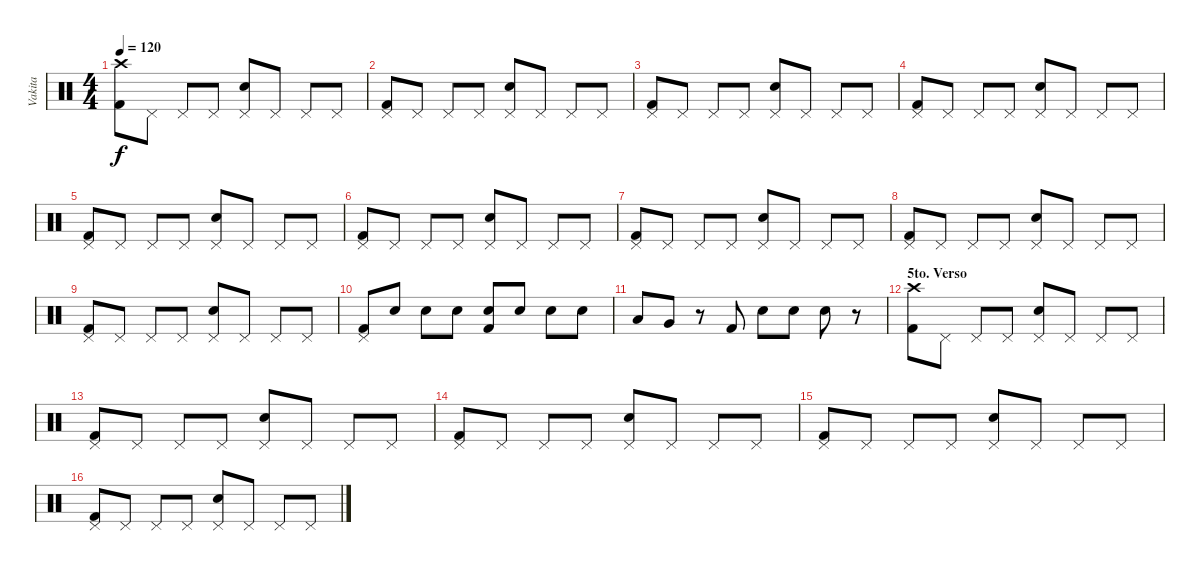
\track ("Vakita" "Vakita") {instrument percussion}
\staff {score}
\articulation defaults
\ts (4 4)
\tempo 120
\clef neutral
\ks c
("Crash high (hit)" "Kick (hit) 2").8{dy f} "Pedal Hi-Hat (hit)".8 "Pedal Hi-Hat (hit)".8 "Pedal Hi-Hat (hit)".8 ("Pedal Hi-Hat (hit)" "Snare (hit) 2").8 "Pedal Hi-Hat (hit)".8 "Pedal Hi-Hat (hit)".8 "Pedal Hi-Hat (hit)".8 |
("Pedal Hi-Hat (hit)" "Kick (hit) 2").8 "Pedal Hi-Hat (hit)".8 "Pedal Hi-Hat (hit)".8 "Pedal Hi-Hat (hit)".8 ("Pedal Hi-Hat (hit)" "Snare (hit) 2").8 "Pedal Hi-Hat (hit)".8 "Pedal Hi-Hat (hit)".8 "Pedal Hi-Hat (hit)".8 |
("Pedal Hi-Hat (hit)" "Kick (hit) 2").8 "Pedal Hi-Hat (hit)".8 "Pedal Hi-Hat (hit)".8 "Pedal Hi-Hat (hit)".8 ("Pedal Hi-Hat (hit)" "Snare (hit) 2").8 "Pedal Hi-Hat (hit)".8 "Pedal Hi-Hat (hit)".8 "Pedal Hi-Hat (hit)".8 |
("Pedal Hi-Hat (hit)" "Kick (hit) 2").8 "Pedal Hi-Hat (hit)".8 "Pedal Hi-Hat (hit)".8 "Pedal Hi-Hat (hit)".8 ("Pedal Hi-Hat (hit)" "Snare (hit) 2").8 "Pedal Hi-Hat (hit)".8 "Pedal Hi-Hat (hit)".8 "Pedal Hi-Hat (hit)".8 |
("Pedal Hi-Hat (hit)" "Kick (hit) 2").8 "Pedal Hi-Hat (hit)".8 "Pedal Hi-Hat (hit)".8 "Pedal Hi-Hat (hit)".8 ("Pedal Hi-Hat (hit)" "Snare (hit) 2").8 "Pedal Hi-Hat (hit)".8 "Pedal Hi-Hat (hit)".8 "Pedal Hi-Hat (hit)".8 |
("Pedal Hi-Hat (hit)" "Kick (hit) 2").8 "Pedal Hi-Hat (hit)".8 "Pedal Hi-Hat (hit)".8 "Pedal Hi-Hat (hit)".8 ("Pedal Hi-Hat (hit)" "Snare (hit) 2").8 "Pedal Hi-Hat (hit)".8 "Pedal Hi-Hat (hit)".8 "Pedal Hi-Hat (hit)".8 |
("Pedal Hi-Hat (hit)" "Kick (hit) 2").8 "Pedal Hi-Hat (hit)".8 "Pedal Hi-Hat (hit)".8 "Pedal Hi-Hat (hit)".8 ("Pedal Hi-Hat (hit)" "Snare (hit) 2").8 "Pedal Hi-Hat (hit)".8 "Pedal Hi-Hat (hit)".8 "Pedal Hi-Hat (hit)".8 |
("Pedal Hi-Hat (hit)" "Kick (hit) 2").8 "Pedal Hi-Hat (hit)".8 "Pedal Hi-Hat (hit)".8 "Pedal Hi-Hat (hit)".8 ("Pedal Hi-Hat (hit)" "Snare (hit) 2").8 "Pedal Hi-Hat (hit)".8 "Pedal Hi-Hat (hit)".8 "Pedal Hi-Hat (hit)".8 |
("Pedal Hi-Hat (hit)" "Kick (hit) 2").8 "Pedal Hi-Hat (hit)".8 "Pedal Hi-Hat (hit)".8 "Pedal Hi-Hat (hit)".8 ("Pedal Hi-Hat (hit)" "Snare (hit) 2").8 "Pedal Hi-Hat (hit)".8 "Pedal Hi-Hat (hit)".8 "Pedal Hi-Hat (hit)".8 |
("Pedal Hi-Hat (hit)" "Kick (hit) 2").8 "Snare (hit) 2".8 "Snare (hit) 2".8 "Snare (hit) 2".8 ("Snare (hit) 2" "Kick (hit) 2").8 "Snare (hit) 2".8 "Snare (hit) 2".8 "Snare (hit) 2".8 |
"Low Tom (hit)".8 "Very Low Tom (hit)".8 r.8 "Kick (hit) 2".8 "Snare (hit) 2".8 "Snare (hit) 2".8 "Snare (hit) 2".8 r.8 |
\section ("" "5to. Verso")
("Crash high (hit)" "Kick (hit) 2").8 "Pedal Hi-Hat (hit)".8 "Pedal Hi-Hat (hit)".8 "Pedal Hi-Hat (hit)".8 ("Pedal Hi-Hat (hit)" "Snare (hit) 2").8 "Pedal Hi-Hat (hit)".8 "Pedal Hi-Hat (hit)".8 "Pedal Hi-Hat (hit)".8 |
("Pedal Hi-Hat (hit)" "Kick (hit) 2").8 "Pedal Hi-Hat (hit)".8 "Pedal Hi-Hat (hit)".8 "Pedal Hi-Hat (hit)".8 ("Pedal Hi-Hat (hit)" "Snare (hit) 2").8 "Pedal Hi-Hat (hit)".8 "Pedal Hi-Hat (hit)".8 "Pedal Hi-Hat (hit)".8 |
("Pedal Hi-Hat (hit)" "Kick (hit) 2").8 "Pedal Hi-Hat (hit)".8 "Pedal Hi-Hat (hit)".8 "Pedal Hi-Hat (hit)".8 ("Pedal Hi-Hat (hit)" "Snare (hit) 2").8 "Pedal Hi-Hat (hit)".8 "Pedal Hi-Hat (hit)".8 "Pedal Hi-Hat (hit)".8 |
("Pedal Hi-Hat (hit)" "Kick (hit) 2").8 "Pedal Hi-Hat (hit)".8 "Pedal Hi-Hat (hit)".8 "Pedal Hi-Hat (hit)".8 ("Pedal Hi-Hat (hit)" "Snare (hit) 2").8 "Pedal Hi-Hat (hit)".8 "Pedal Hi-Hat (hit)".8 "Pedal Hi-Hat (hit)".8 |
("Pedal Hi-Hat (hit)" "Kick (hit) 2").8 "Pedal Hi-Hat (hit)".8 "Pedal Hi-Hat (hit)".8 "Pedal Hi-Hat (hit)".8 ("Pedal Hi-Hat (hit)" "Snare (hit) 2").8 "Pedal Hi-Hat (hit)".8 "Pedal Hi-Hat (hit)".8 "Pedal Hi-Hat (hit)".8
